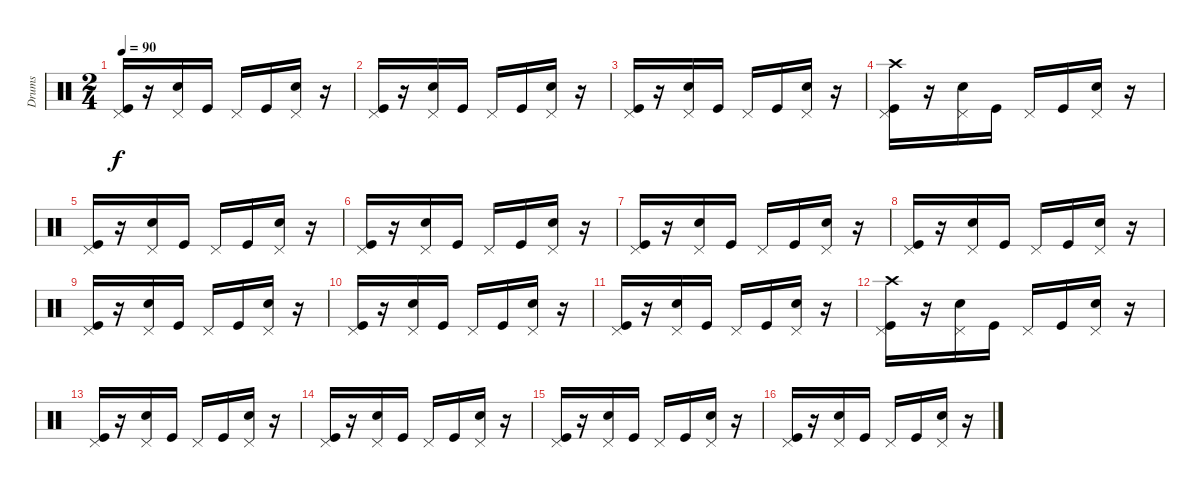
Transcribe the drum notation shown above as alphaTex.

\track ("Drums" "Drums") {instrument percussion}
\staff {score}
\articulation defaults
\ts (2 4)
\tempo 90
\clef neutral
\ks c
("Kick (hit)" "Pedal Hi-Hat (hit)").16{dy f} r.16 ("Snare (hit) 2" "Pedal Hi-Hat (hit)").16 "Kick (hit)".16 "Pedal Hi-Hat (hit)".16 "Kick (hit)".16 ("Snare (hit) 2" "Pedal Hi-Hat (hit)").16 r.16 |
("Kick (hit)" "Pedal Hi-Hat (hit)").16 r.16 ("Snare (hit) 2" "Pedal Hi-Hat (hit)").16 "Kick (hit)".16 "Pedal Hi-Hat (hit)".16 "Kick (hit)".16 ("Snare (hit) 2" "Pedal Hi-Hat (hit)").16 r.16 |
("Kick (hit)" "Pedal Hi-Hat (hit)").16 r.16 ("Snare (hit) 2" "Pedal Hi-Hat (hit)").16 "Kick (hit)".16 "Pedal Hi-Hat (hit)".16 "Kick (hit)".16 ("Snare (hit) 2" "Pedal Hi-Hat (hit)").16 r.16 |
("Crash high (hit)" "Kick (hit)" "Pedal Hi-Hat (hit)").16 r.16 ("Snare (hit) 2" "Pedal Hi-Hat (hit)").16 "Kick (hit)".16 "Pedal Hi-Hat (hit)".16 "Kick (hit)".16 ("Snare (hit) 2" "Pedal Hi-Hat (hit)").16 r.16 |
("Kick (hit)" "Pedal Hi-Hat (hit)").16 r.16 ("Snare (hit) 2" "Pedal Hi-Hat (hit)").16 "Kick (hit)".16 "Pedal Hi-Hat (hit)".16 "Kick (hit)".16 ("Snare (hit) 2" "Pedal Hi-Hat (hit)").16 r.16 |
("Kick (hit)" "Pedal Hi-Hat (hit)").16 r.16 ("Snare (hit) 2" "Pedal Hi-Hat (hit)").16 "Kick (hit)".16 "Pedal Hi-Hat (hit)".16 "Kick (hit)".16 ("Snare (hit) 2" "Pedal Hi-Hat (hit)").16 r.16 |
("Kick (hit)" "Pedal Hi-Hat (hit)").16 r.16 ("Snare (hit) 2" "Pedal Hi-Hat (hit)").16 "Kick (hit)".16 "Pedal Hi-Hat (hit)".16 "Kick (hit)".16 ("Snare (hit) 2" "Pedal Hi-Hat (hit)").16 r.16 |
("Kick (hit)" "Pedal Hi-Hat (hit)").16 r.16 ("Snare (hit) 2" "Pedal Hi-Hat (hit)").16 "Kick (hit)".16 "Pedal Hi-Hat (hit)".16 "Kick (hit)".16 ("Snare (hit) 2" "Pedal Hi-Hat (hit)").16 r.16 |
("Kick (hit)" "Pedal Hi-Hat (hit)").16 r.16 ("Snare (hit) 2" "Pedal Hi-Hat (hit)").16 "Kick (hit)".16 "Pedal Hi-Hat (hit)".16 "Kick (hit)".16 ("Snare (hit) 2" "Pedal Hi-Hat (hit)").16 r.16 |
("Kick (hit)" "Pedal Hi-Hat (hit)").16 r.16 ("Snare (hit) 2" "Pedal Hi-Hat (hit)").16 "Kick (hit)".16 "Pedal Hi-Hat (hit)".16 "Kick (hit)".16 ("Snare (hit) 2" "Pedal Hi-Hat (hit)").16 r.16 |
("Kick (hit)" "Pedal Hi-Hat (hit)").16 r.16 ("Snare (hit) 2" "Pedal Hi-Hat (hit)").16 "Kick (hit)".16 "Pedal Hi-Hat (hit)".16 "Kick (hit)".16 ("Snare (hit) 2" "Pedal Hi-Hat (hit)").16 r.16 |
("Crash high (hit)" "Kick (hit)" "Pedal Hi-Hat (hit)").16 r.16 ("Snare (hit) 2" "Pedal Hi-Hat (hit)").16 "Kick (hit)".16 "Pedal Hi-Hat (hit)".16 "Kick (hit)".16 ("Snare (hit) 2" "Pedal Hi-Hat (hit)").16 r.16 |
("Kick (hit)" "Pedal Hi-Hat (hit)").16 r.16 ("Snare (hit) 2" "Pedal Hi-Hat (hit)").16 "Kick (hit)".16 "Pedal Hi-Hat (hit)".16 "Kick (hit)".16 ("Snare (hit) 2" "Pedal Hi-Hat (hit)").16 r.16 |
("Kick (hit)" "Pedal Hi-Hat (hit)").16 r.16 ("Snare (hit) 2" "Pedal Hi-Hat (hit)").16 "Kick (hit)".16 "Pedal Hi-Hat (hit)".16 "Kick (hit)".16 ("Snare (hit) 2" "Pedal Hi-Hat (hit)").16 r.16 |
("Kick (hit)" "Pedal Hi-Hat (hit)").16 r.16 ("Snare (hit) 2" "Pedal Hi-Hat (hit)").16 "Kick (hit)".16 "Pedal Hi-Hat (hit)".16 "Kick (hit)".16 ("Snare (hit) 2" "Pedal Hi-Hat (hit)").16 r.16 |
("Kick (hit)" "Pedal Hi-Hat (hit)").16 r.16 ("Snare (hit) 2" "Pedal Hi-Hat (hit)").16 "Kick (hit)".16 "Pedal Hi-Hat (hit)".16 "Kick (hit)".16 ("Snare (hit) 2" "Pedal Hi-Hat (hit)").16 r.16
